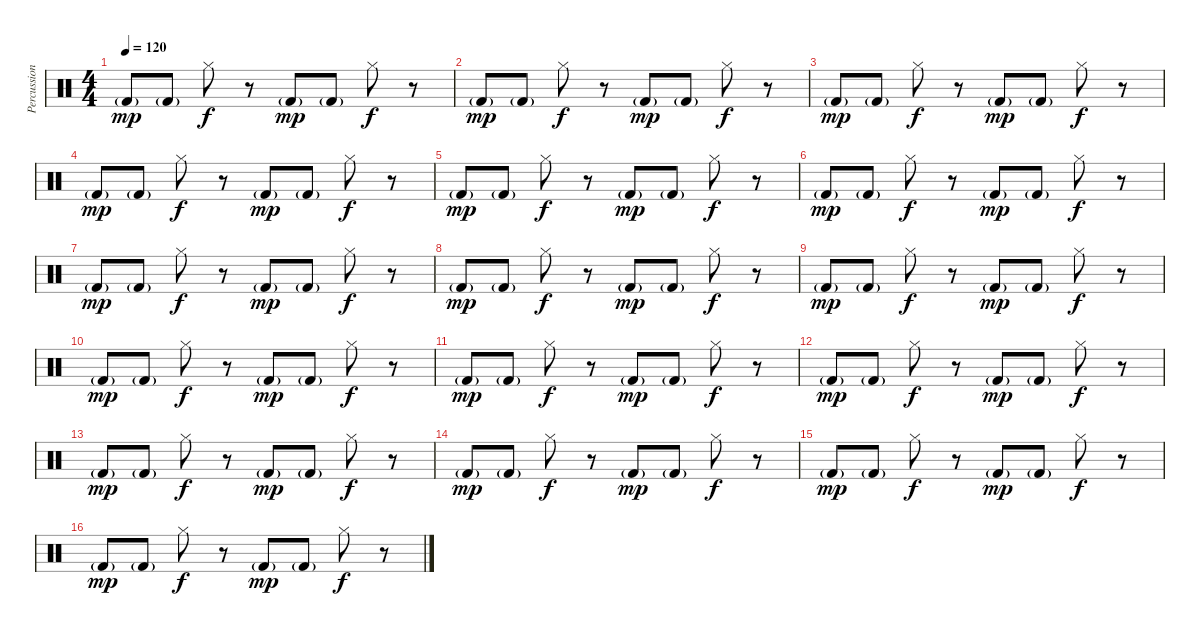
\track ("Percussion" "Percussion") {instrument percussion}
\staff {score}
\articulation defaults
\ts (4 4)
\tempo 120
\clef neutral
\ks c "Kick (hit) 2"{g}.8{dy mp} "Kick (hit) 2"{g}.8 "Hi-Hat (closed)".8{dy f}
r.8 "Kick (hit) 2"{g}.8{dy mp} "Kick (hit) 2"{g}.8 "Hi-Hat (closed)".8{dy f} r.8 |
"Kick (hit) 2"{g}.8{dy mp} "Kick (hit) 2"{g}.8 "Hi-Hat (closed)".8{dy f} r.8 "Kick (hit) 2"{g}.8{dy mp} "Kick (hit) 2"{g}.8 "Hi-Hat (closed)".8{dy f} r.8 |
"Kick (hit) 2"{g}.8{dy mp} "Kick (hit) 2"{g}.8 "Hi-Hat (closed)".8{dy f} r.8 "Kick (hit) 2"{g}.8{dy mp} "Kick (hit) 2"{g}.8 "Hi-Hat (closed)".8{dy f} r.8 |
"Kick (hit) 2"{g}.8{dy mp} "Kick (hit) 2"{g}.8 "Hi-Hat (closed)".8{dy f} r.8 "Kick (hit) 2"{g}.8{dy mp} "Kick (hit) 2"{g}.8 "Hi-Hat (closed)".8{dy f} r.8 |
"Kick (hit) 2"{g}.8{dy mp} "Kick (hit) 2"{g}.8 "Hi-Hat (closed)".8{dy f} r.8 "Kick (hit) 2"{g}.8{dy mp} "Kick (hit) 2"{g}.8 "Hi-Hat (closed)".8{dy f} r.8 |
"Kick (hit) 2"{g}.8{dy mp} "Kick (hit) 2"{g}.8 "Hi-Hat (closed)".8{dy f} r.8 "Kick (hit) 2"{g}.8{dy mp} "Kick (hit) 2"{g}.8 "Hi-Hat (closed)".8{dy f} r.8 |
"Kick (hit) 2"{g}.8{dy mp} "Kick (hit) 2"{g}.8 "Hi-Hat (closed)".8{dy f} r.8 "Kick (hit) 2"{g}.8{dy mp} "Kick (hit) 2"{g}.8 "Hi-Hat (closed)".8{dy f} r.8 |
"Kick (hit) 2"{g}.8{dy mp} "Kick (hit) 2"{g}.8 "Hi-Hat (closed)".8{dy f} r.8 "Kick (hit) 2"{g}.8{dy mp} "Kick (hit) 2"{g}.8 "Hi-Hat (closed)".8{dy f} r.8 |
"Kick (hit) 2"{g}.8{dy mp} "Kick (hit) 2"{g}.8 "Hi-Hat (closed)".8{dy f} r.8 "Kick (hit) 2"{g}.8{dy mp} "Kick (hit) 2"{g}.8 "Hi-Hat (closed)".8{dy f} r.8 |
"Kick (hit) 2"{g}.8{dy mp} "Kick (hit) 2"{g}.8 "Hi-Hat (closed)".8{dy f} r.8 "Kick (hit) 2"{g}.8{dy mp} "Kick (hit) 2"{g}.8 "Hi-Hat (closed)".8{dy f} r.8 |
"Kick (hit) 2"{g}.8{dy mp} "Kick (hit) 2"{g}.8 "Hi-Hat (closed)".8{dy f} r.8 "Kick (hit) 2"{g}.8{dy mp} "Kick (hit) 2"{g}.8 "Hi-Hat (closed)".8{dy f} r.8 |
"Kick (hit) 2"{g}.8{dy mp} "Kick (hit) 2"{g}.8 "Hi-Hat (closed)".8{dy f} r.8 "Kick (hit) 2"{g}.8{dy mp} "Kick (hit) 2"{g}.8 "Hi-Hat (closed)".8{dy f} r.8 |
"Kick (hit) 2"{g}.8{dy mp} "Kick (hit) 2"{g}.8 "Hi-Hat (closed)".8{dy f} r.8 "Kick (hit) 2"{g}.8{dy mp} "Kick (hit) 2"{g}.8 "Hi-Hat (closed)".8{dy f} r.8 |
"Kick (hit) 2"{g}.8{dy mp} "Kick (hit) 2"{g}.8 "Hi-Hat (closed)".8{dy f} r.8 "Kick (hit) 2"{g}.8{dy mp} "Kick (hit) 2"{g}.8 "Hi-Hat (closed)".8{dy f} r.8 |
"Kick (hit) 2"{g}.8{dy mp} "Kick (hit) 2"{g}.8 "Hi-Hat (closed)".8{dy f} r.8 "Kick (hit) 2"{g}.8{dy mp} "Kick (hit) 2"{g}.8 "Hi-Hat (closed)".8{dy f} r.8 |
"Kick (hit) 2"{g}.8{dy mp} "Kick (hit) 2"{g}.8 "Hi-Hat (closed)".8{dy f} r.8 "Kick (hit) 2"{g}.8{dy mp} "Kick (hit) 2"{g}.8 "Hi-Hat (closed)".8{dy f} r.8
